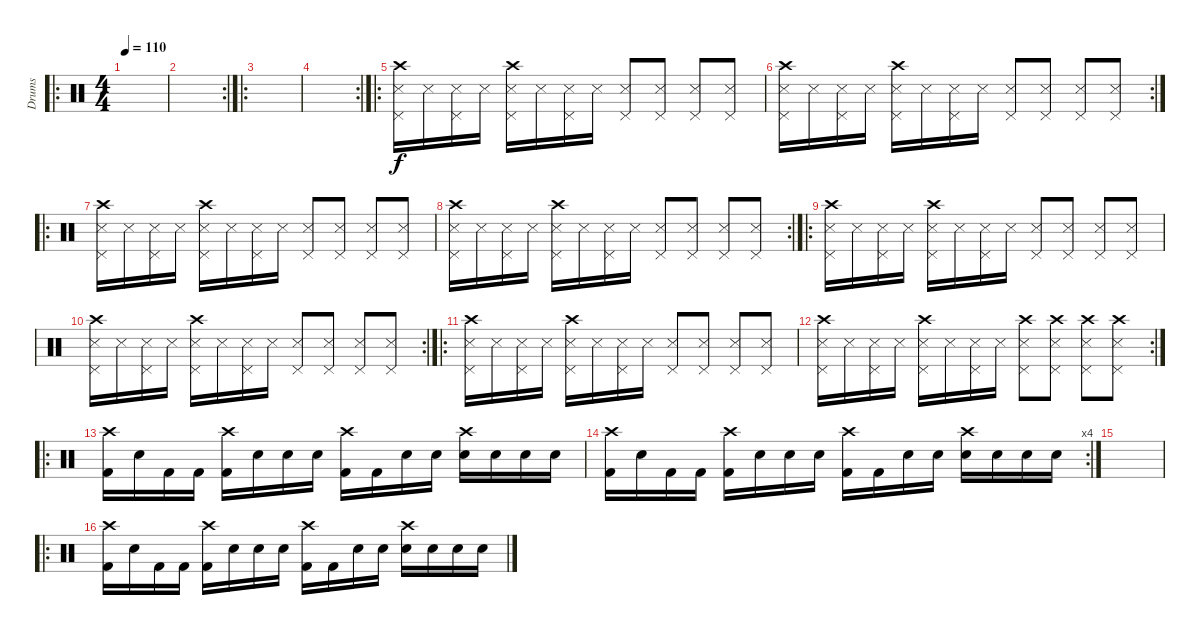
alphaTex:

\track ("Drums" "Drums") {instrument percussion}
\staff {score}
\articulation defaults
\ro
\ts (4 4)
\tempo 110
\clef neutral
\ks c
|
\rc 2
|
\ro
|
\rc 2
|
\ro
("Metronome (hit)" "Pedal Hi-Hat (hit)" "Crash high (hit)").16 "Metronome (hit)".16 ("Metronome (hit)" "Pedal Hi-Hat (hit)").16 "Metronome (hit)".16 ("Metronome (hit)" "Pedal Hi-Hat (hit)" "Crash high (hit)").16 "Metronome (hit)".16 ("Metronome (hit)" "Pedal Hi-Hat (hit)").16 "Metronome (hit)".16 ("Metronome (hit)" "Pedal Hi-Hat (hit)").8 ("Metronome (hit)" "Pedal Hi-Hat (hit)").8 ("Metronome (hit)" "Pedal Hi-Hat (hit)").8 ("Metronome (hit)" "Pedal Hi-Hat (hit)").8 |
\rc 2
("Metronome (hit)" "Pedal Hi-Hat (hit)" "Crash high (hit)").16 "Metronome (hit)".16 ("Metronome (hit)" "Pedal Hi-Hat (hit)").16 "Metronome (hit)".16 ("Metronome (hit)" "Pedal Hi-Hat (hit)" "Crash high (hit)").16 "Metronome (hit)".16 ("Metronome (hit)" "Pedal Hi-Hat (hit)").16 "Metronome (hit)".16 ("Metronome (hit)" "Pedal Hi-Hat (hit)").8 ("Metronome (hit)" "Pedal Hi-Hat (hit)").8 ("Metronome (hit)" "Pedal Hi-Hat (hit)").8 ("Metronome (hit)" "Pedal Hi-Hat (hit)").8 |
\ro
("Metronome (hit)" "Pedal Hi-Hat (hit)" "Crash high (hit)").16 "Metronome (hit)".16 ("Metronome (hit)" "Pedal Hi-Hat (hit)").16 "Metronome (hit)".16 ("Metronome (hit)" "Pedal Hi-Hat (hit)" "Crash high (hit)").16 "Metronome (hit)".16 ("Metronome (hit)" "Pedal Hi-Hat (hit)").16 "Metronome (hit)".16 ("Metronome (hit)" "Pedal Hi-Hat (hit)").8 ("Metronome (hit)" "Pedal Hi-Hat (hit)").8 ("Metronome (hit)" "Pedal Hi-Hat (hit)").8 ("Metronome (hit)" "Pedal Hi-Hat (hit)").8 |
\rc 2
("Metronome (hit)" "Pedal Hi-Hat (hit)" "Crash high (hit)").16 "Metronome (hit)".16 ("Metronome (hit)" "Pedal Hi-Hat (hit)").16 "Metronome (hit)".16 ("Metronome (hit)" "Pedal Hi-Hat (hit)" "Crash high (hit)").16 "Metronome (hit)".16 ("Metronome (hit)" "Pedal Hi-Hat (hit)").16 "Metronome (hit)".16 ("Metronome (hit)" "Pedal Hi-Hat (hit)").8 ("Metronome (hit)" "Pedal Hi-Hat (hit)").8 ("Metronome (hit)" "Pedal Hi-Hat (hit)").8 ("Metronome (hit)" "Pedal Hi-Hat (hit)").8 |
\ro
("Metronome (hit)" "Pedal Hi-Hat (hit)" "Crash high (hit)").16 "Metronome (hit)".16 ("Metronome (hit)" "Pedal Hi-Hat (hit)").16 "Metronome (hit)".16 ("Metronome (hit)" "Pedal Hi-Hat (hit)" "Crash high (hit)").16 "Metronome (hit)".16 ("Metronome (hit)" "Pedal Hi-Hat (hit)").16 "Metronome (hit)".16 ("Metronome (hit)" "Pedal Hi-Hat (hit)").8 ("Metronome (hit)" "Pedal Hi-Hat (hit)").8 ("Metronome (hit)" "Pedal Hi-Hat (hit)").8 ("Metronome (hit)" "Pedal Hi-Hat (hit)").8 |
\rc 2
("Metronome (hit)" "Pedal Hi-Hat (hit)" "Crash high (hit)").16 "Metronome (hit)".16 ("Metronome (hit)" "Pedal Hi-Hat (hit)").16 "Metronome (hit)".16 ("Metronome (hit)" "Pedal Hi-Hat (hit)" "Crash high (hit)").16 "Metronome (hit)".16 ("Metronome (hit)" "Pedal Hi-Hat (hit)").16 "Metronome (hit)".16 ("Metronome (hit)" "Pedal Hi-Hat (hit)").8 ("Metronome (hit)" "Pedal Hi-Hat (hit)").8 ("Metronome (hit)" "Pedal Hi-Hat (hit)").8 ("Metronome (hit)" "Pedal Hi-Hat (hit)").8 |
\ro
("Metronome (hit)" "Pedal Hi-Hat (hit)" "Crash high (hit)").16 "Metronome (hit)".16 ("Metronome (hit)" "Pedal Hi-Hat (hit)").16 "Metronome (hit)".16 ("Metronome (hit)" "Pedal Hi-Hat (hit)" "Crash high (hit)").16 "Metronome (hit)".16 ("Metronome (hit)" "Pedal Hi-Hat (hit)").16 "Metronome (hit)".16 ("Metronome (hit)" "Pedal Hi-Hat (hit)").8 ("Metronome (hit)" "Pedal Hi-Hat (hit)").8 ("Metronome (hit)" "Pedal Hi-Hat (hit)").8 ("Metronome (hit)" "Pedal Hi-Hat (hit)").8 |
\rc 2
("Metronome (hit)" "Pedal Hi-Hat (hit)" "Crash high (hit)").16 "Metronome (hit)".16 ("Metronome (hit)" "Pedal Hi-Hat (hit)").16 "Metronome (hit)".16 ("Metronome (hit)" "Pedal Hi-Hat (hit)" "Crash high (hit)").16 "Metronome (hit)".16 ("Metronome (hit)" "Pedal Hi-Hat (hit)").16 "Metronome (hit)".16 ("Metronome (hit)" "Pedal Hi-Hat (hit)" "Crash high (hit)").8 ("Metronome (hit)" "Pedal Hi-Hat (hit)" "Crash high (hit)").8 ("Metronome (hit)" "Pedal Hi-Hat (hit)" "Crash high (hit)").8 ("Metronome (hit)" "Pedal Hi-Hat (hit)" "Crash high (hit)").8 |
\ro
("Kick (hit) 2" "Crash high (hit)").16 "Snare (hit)".16 "Kick (hit) 2".16 "Kick (hit) 2".16 ("Kick (hit) 2" "Crash high (hit)").16 "Electric Snare (hit)".16 "Snare (hit)".16 "Snare (hit)".16 ("Kick (hit) 2" "Crash high (hit)").16 "Kick (hit) 2".16 "Electric Snare (hit)".16 "Snare (hit)".16 ("Electric Snare (hit)" "Crash high (hit)").16 "Electric Snare (hit)".16 "Electric Snare (hit)".16 "Snare (hit)".16 |
\rc 4
("Kick (hit) 2" "Crash high (hit)").16 "Snare (hit)".16 "Kick (hit) 2".16 "Kick (hit) 2".16 ("Kick (hit) 2" "Crash high (hit)").16 "Electric Snare (hit)".16 "Snare (hit)".16 "Snare (hit)".16 ("Kick (hit) 2" "Crash high (hit)").16 "Kick (hit) 2".16 "Electric Snare (hit)".16 "Snare (hit)".16 ("Electric Snare (hit)" "Crash high (hit)").16 "Electric Snare (hit)".16 "Electric Snare (hit)".16 "Snare (hit)".16 |
|
\ro
("Kick (hit) 2" "Crash high (hit)").16 "Snare (hit)".16 "Kick (hit) 2".16 "Kick (hit) 2".16 ("Kick (hit) 2" "Crash high (hit)").16 "Electric Snare (hit)".16 "Snare (hit)".16 "Snare (hit)".16 ("Kick (hit) 2" "Crash high (hit)").16 "Kick (hit) 2".16 "Electric Snare (hit)".16 "Snare (hit)".16 ("Electric Snare (hit)" "Crash high (hit)").16 "Electric Snare (hit)".16 "Electric Snare (hit)".16 "Snare (hit)".16
